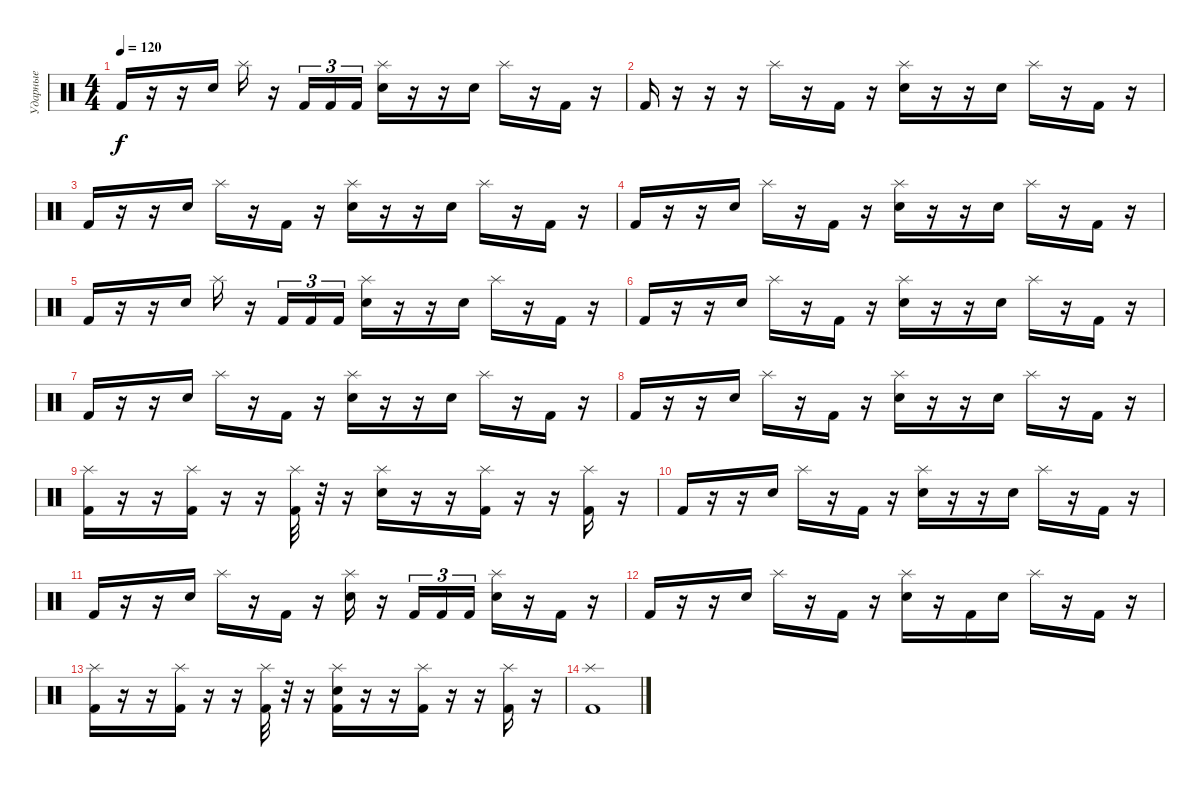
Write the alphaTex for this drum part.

\track ("Ударные" "Ударные") {instrument percussion}
\staff {score}
\articulation defaults
\ts (4 4)
\tempo 120
\clef neutral
\ks c "Kick (hit) 2".16{dy f}
r.16 r.16 "Electric Snare (hit)".16 "Splash (hit)".16 r.16 "Kick (hit) 2".16{tu (3 2)} "Kick (hit) 2".16{tu (3 2)} "Kick (hit) 2".16{tu (3 2)} ("Splash (hit)" "Electric Snare (hit)").16 r.16 r.16 "Electric Snare (hit)".16 "Splash (hit)".16 r.16 "Kick (hit) 2".16 r.16 |
"Kick (hit) 2".16 r.16 r.16 r.16 "Splash (hit)".16 r.16 "Kick (hit) 2".16 r.16 ("Splash (hit)" "Electric Snare (hit)").16 r.16 r.16 "Electric Snare (hit)".16 "Splash (hit)".16 r.16 "Kick (hit) 2".16 r.16 |
"Kick (hit) 2".16 r.16 r.16 "Electric Snare (hit)".16 "Splash (hit)".16 r.16 "Kick (hit) 2".16 r.16 ("Splash (hit)" "Electric Snare (hit)").16 r.16 r.16 "Electric Snare (hit)".16 "Splash (hit)".16 r.16 "Kick (hit) 2".16 r.16 |
"Kick (hit) 2".16 r.16 r.16 "Electric Snare (hit)".16 "Splash (hit)".16 r.16 "Kick (hit) 2".16 r.16 ("Splash (hit)" "Electric Snare (hit)").16 r.16 r.16 "Electric Snare (hit)".16 "Splash (hit)".16 r.16 "Kick (hit) 2".16 r.16 |
"Kick (hit) 2".16 r.16 r.16 "Electric Snare (hit)".16 "Splash (hit)".16 r.16 "Kick (hit) 2".16{tu (3 2)} "Kick (hit) 2".16{tu (3 2)} "Kick (hit) 2".16{tu (3 2)} ("Splash (hit)" "Electric Snare (hit)").16 r.16 r.16 "Electric Snare (hit)".16 "Splash (hit)".16 r.16 "Kick (hit) 2".16 r.16 |
"Kick (hit) 2".16 r.16 r.16 "Electric Snare (hit)".16 "Splash (hit)".16 r.16 "Kick (hit) 2".16 r.16 ("Splash (hit)" "Electric Snare (hit)").16 r.16 r.16 "Electric Snare (hit)".16 "Splash (hit)".16 r.16 "Kick (hit) 2".16 r.16 |
"Kick (hit) 2".16 r.16 r.16 "Electric Snare (hit)".16 "Splash (hit)".16 r.16 "Kick (hit) 2".16 r.16 ("Splash (hit)" "Electric Snare (hit)").16 r.16 r.16 "Electric Snare (hit)".16 "Splash (hit)".16 r.16 "Kick (hit) 2".16 r.16 |
"Kick (hit) 2".16 r.16 r.16 "Electric Snare (hit)".16 "Splash (hit)".16 r.16 "Kick (hit) 2".16 r.16 ("Splash (hit)" "Electric Snare (hit)").16 r.16 r.16 "Electric Snare (hit)".16 "Splash (hit)".16 r.16 "Kick (hit) 2".16 r.16 |
("Splash (hit)" "Kick (hit) 2").16 r.16 r.16 ("Splash (hit)" "Kick (hit) 2").16 r.16 r.16 ("Splash (hit)" "Kick (hit) 2").32 r.32 r.16 ("Splash (hit)" "Electric Snare (hit)").16 r.16 r.16 ("Splash (hit)" "Kick (hit) 2").16 r.16 r.16 ("Splash (hit)" "Kick (hit) 2").16 r.16 |
"Kick (hit) 2".16 r.16 r.16 "Electric Snare (hit)".16 "Splash (hit)".16 r.16 "Kick (hit) 2".16 r.16 ("Splash (hit)" "Electric Snare (hit)").16 r.16 r.16 "Electric Snare (hit)".16 "Splash (hit)".16 r.16 "Kick (hit) 2".16 r.16 |
"Kick (hit) 2".16 r.16 r.16 "Electric Snare (hit)".16 "Splash (hit)".16 r.16 "Kick (hit) 2".16 r.16 ("Splash (hit)" "Electric Snare (hit)").16 r.16 "Kick (hit) 2".16{tu (3 2)} "Kick (hit) 2".16{tu (3 2)} "Kick (hit) 2".16{tu (3 2)} ("Splash (hit)" "Electric Snare (hit)").16 r.16 "Kick (hit) 2".16 r.16 |
"Kick (hit) 2".16 r.16 r.16 "Electric Snare (hit)".16 "Splash (hit)".16 r.16 "Kick (hit) 2".16 r.16 ("Splash (hit)" "Electric Snare (hit)").16 r.16 "Kick (hit) 2".16 "Electric Snare (hit)".16 "Splash (hit)".16 r.16 "Kick (hit) 2".16 r.16 |
("Splash (hit)" "Kick (hit) 2").16 r.16 r.16 ("Splash (hit)" "Kick (hit) 2").16 r.16 r.16 ("Splash (hit)" "Kick (hit) 2").32 r.32 r.16 ("Splash (hit)" "Electric Snare (hit)" "Kick (hit) 2").16 r.16 r.16 ("Splash (hit)" "Kick (hit) 2").16 r.16 r.16 ("Splash (hit)" "Kick (hit) 2").16 r.16 |
("Splash (hit)" "Kick (hit) 2").1
